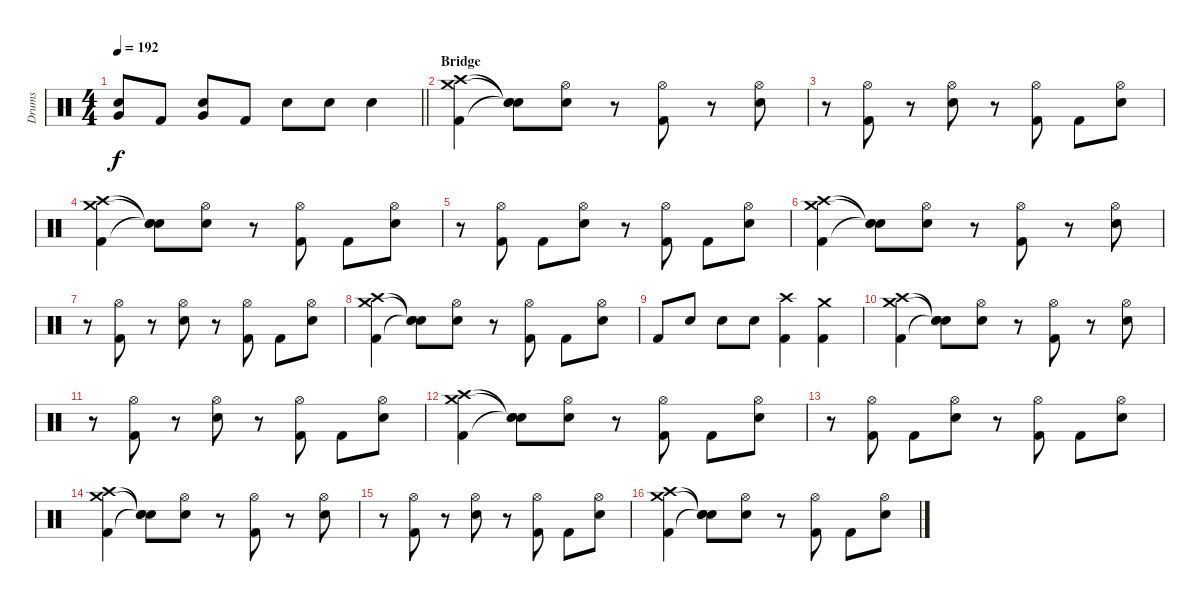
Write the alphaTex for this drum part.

\track ("Drums" "Drums") {instrument percussion}
\staff {score}
\articulation defaults
\ts (4 4)
\tempo 192
\clef neutral
\barLineRight lightlight
\ks c
("Very Low Tom (hit)" "Electric Snare (hit)").8{dy f} "Kick (hit) 2".8 ("Very Low Tom (hit)" "Electric Snare (hit)").8 "Kick (hit) 2".8 "Electric Snare (hit)".8 "Electric Snare (hit)".8 "Electric Snare (hit)".4 |
\section ("" "Bridge")
("Crash medium (hit)" "Crash high (hit)" "Kick (hit) 2").4 ("Snare (hit)"{t} "Snare (hit)"{t} "Snare (hit)"{t}).8 ("Hi-Hat (open)" "Electric Snare (hit)").8 r.8 ("Hi-Hat (open)" "Kick (hit) 2").8 r.8 ("Hi-Hat (open)" "Electric Snare (hit)").8 |
r.8 ("Hi-Hat (open)" "Kick (hit) 2").8 r.8 ("Hi-Hat (open)" "Electric Snare (hit)").8 r.8 ("Hi-Hat (open)" "Kick (hit) 2").8 "Kick (hit) 2".8 ("Hi-Hat (open)" "Electric Snare (hit)").8 |
("Crash medium (hit)" "Crash high (hit)" "Kick (hit) 2").4 ("Snare (hit)"{t} "Snare (hit)"{t} "Snare (hit)"{t}).8 ("Hi-Hat (open)" "Electric Snare (hit)").8 r.8 ("Hi-Hat (open)" "Kick (hit) 2").8 "Kick (hit) 2".8 ("Hi-Hat (open)" "Electric Snare (hit)").8 |
r.8 ("Hi-Hat (open)" "Kick (hit) 2").8 "Kick (hit) 2".8 ("Hi-Hat (open)" "Electric Snare (hit)").8 r.8 ("Hi-Hat (open)" "Kick (hit) 2").8 "Kick (hit) 2".8 ("Hi-Hat (open)" "Electric Snare (hit)").8 |
("Crash medium (hit)" "Crash high (hit)" "Kick (hit) 2").4 ("Snare (hit)"{t} "Snare (hit)"{t} "Snare (hit)"{t}).8 ("Hi-Hat (open)" "Electric Snare (hit)").8 r.8 ("Hi-Hat (open)" "Kick (hit) 2").8 r.8 ("Hi-Hat (open)" "Electric Snare (hit)").8 |
r.8 ("Hi-Hat (open)" "Kick (hit) 2").8 r.8 ("Hi-Hat (open)" "Electric Snare (hit)").8 r.8 ("Hi-Hat (open)" "Kick (hit) 2").8 "Kick (hit) 2".8 ("Hi-Hat (open)" "Electric Snare (hit)").8 |
("Crash medium (hit)" "Crash high (hit)" "Kick (hit) 2").4 ("Snare (hit)"{t} "Snare (hit)"{t} "Snare (hit)"{t}).8 ("Hi-Hat (open)" "Electric Snare (hit)").8 r.8 ("Hi-Hat (open)" "Kick (hit) 2").8 "Kick (hit) 2".8 ("Hi-Hat (open)" "Electric Snare (hit)").8 |
"Kick (hit) 2".8 "Electric Snare (hit)".8 "Electric Snare (hit)".8 "Electric Snare (hit)".8 ("Crash high (hit)" "Kick (hit) 2").4 ("Crash medium (hit)" "Kick (hit) 2").4 |
("Crash medium (hit)" "Crash high (hit)" "Kick (hit) 2").4 ("Snare (hit)"{t} "Snare (hit)"{t} "Snare (hit)"{t}).8 ("Hi-Hat (open)" "Electric Snare (hit)").8 r.8 ("Hi-Hat (open)" "Kick (hit) 2").8 r.8 ("Hi-Hat (open)" "Electric Snare (hit)").8 |
r.8 ("Hi-Hat (open)" "Kick (hit) 2").8 r.8 ("Hi-Hat (open)" "Electric Snare (hit)").8 r.8 ("Hi-Hat (open)" "Kick (hit) 2").8 "Kick (hit) 2".8 ("Hi-Hat (open)" "Electric Snare (hit)").8 |
("Crash medium (hit)" "Crash high (hit)" "Kick (hit) 2").4 ("Snare (hit)"{t} "Snare (hit)"{t} "Snare (hit)"{t}).8 ("Hi-Hat (open)" "Electric Snare (hit)").8 r.8 ("Hi-Hat (open)" "Kick (hit) 2").8 "Kick (hit) 2".8 ("Hi-Hat (open)" "Electric Snare (hit)").8 |
r.8 ("Hi-Hat (open)" "Kick (hit) 2").8 "Kick (hit) 2".8 ("Hi-Hat (open)" "Electric Snare (hit)").8 r.8 ("Hi-Hat (open)" "Kick (hit) 2").8 "Kick (hit) 2".8 ("Hi-Hat (open)" "Electric Snare (hit)").8 |
("Crash medium (hit)" "Crash high (hit)" "Kick (hit) 2").4 ("Snare (hit)"{t} "Snare (hit)"{t} "Snare (hit)"{t}).8 ("Hi-Hat (open)" "Electric Snare (hit)").8 r.8 ("Hi-Hat (open)" "Kick (hit) 2").8 r.8 ("Hi-Hat (open)" "Electric Snare (hit)").8 |
r.8 ("Hi-Hat (open)" "Kick (hit) 2").8 r.8 ("Hi-Hat (open)" "Electric Snare (hit)").8 r.8 ("Hi-Hat (open)" "Kick (hit) 2").8 "Kick (hit) 2".8 ("Hi-Hat (open)" "Electric Snare (hit)").8 |
("Crash medium (hit)" "Crash high (hit)" "Kick (hit) 2").4 ("Snare (hit)"{t} "Snare (hit)"{t} "Snare (hit)"{t}).8 ("Hi-Hat (open)" "Electric Snare (hit)").8 r.8 ("Hi-Hat (open)" "Kick (hit) 2").8 "Kick (hit) 2".8 ("Hi-Hat (open)" "Electric Snare (hit)").8
